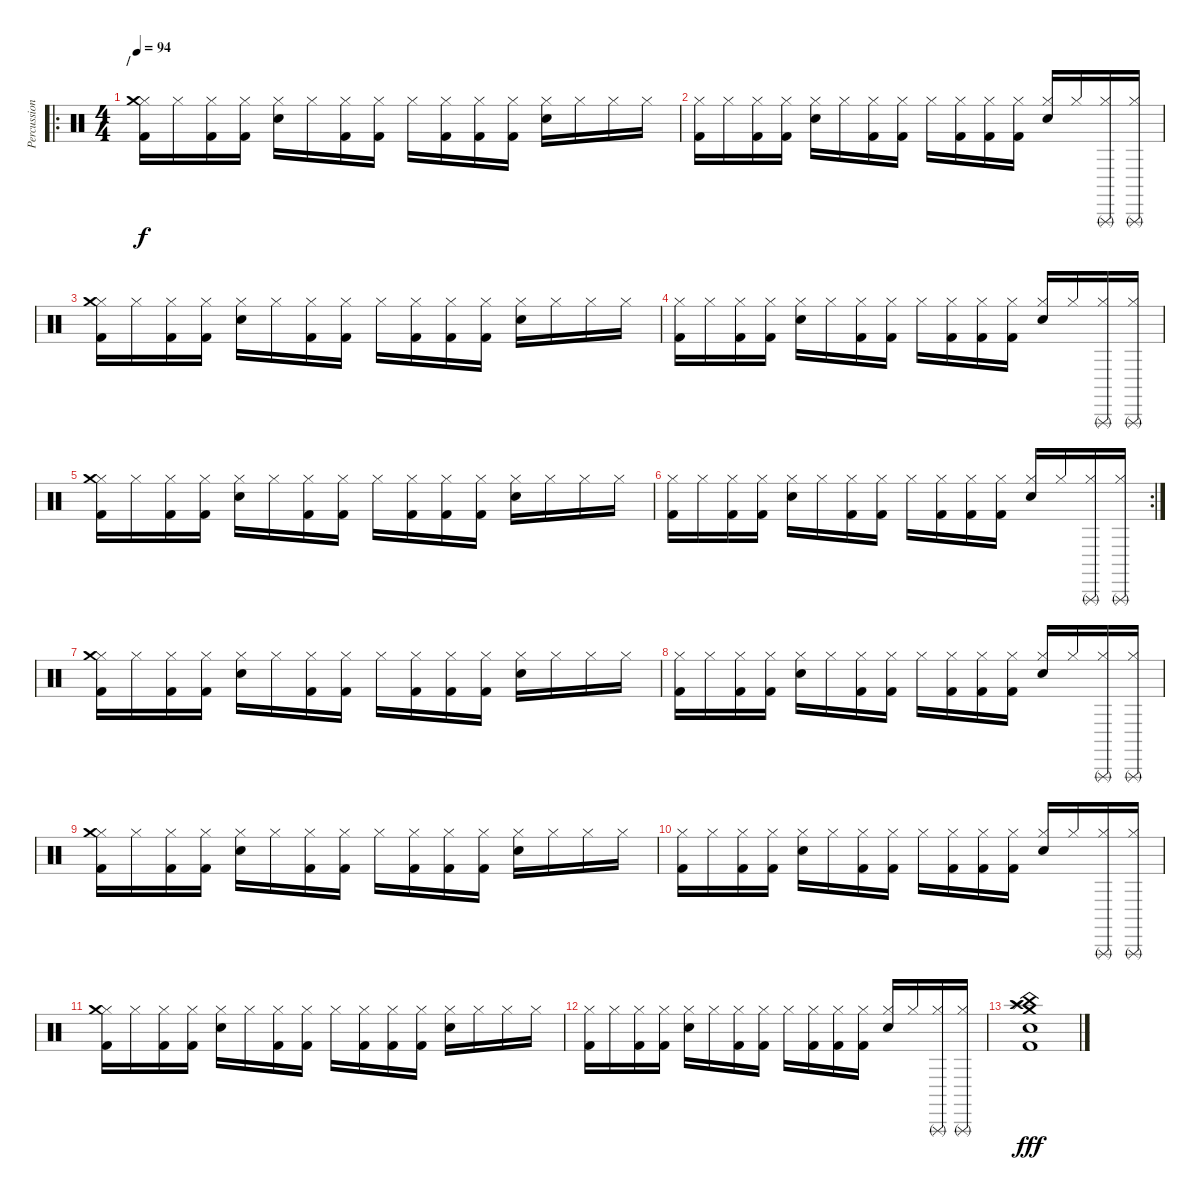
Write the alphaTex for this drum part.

\track ("Percussions" "Percussion") {instrument percussion}
\staff {score}
\articulation defaults
\ro
\ts (4 4)
\section ("" "/")
\tempo 94
\clef neutral
\ks c
("Hi-Hat (closed)" "Crash medium (hit)" "Kick (hit) 2").16{dy f} "Hi-Hat (closed)".16 ("Hi-Hat (closed)" "Kick (hit) 2").16 ("Hi-Hat (closed)" "Kick (hit) 2").16 ("Hi-Hat (closed)" "Electric Snare (hit)").16 "Hi-Hat (closed)".16 ("Hi-Hat (closed)" "Kick (hit) 2").16 ("Hi-Hat (closed)" "Kick (hit) 2").16 "Hi-Hat (closed)".16 ("Hi-Hat (closed)" "Kick (hit) 2").16 ("Hi-Hat (closed)" "Kick (hit) 2").16 ("Hi-Hat (closed)" "Kick (hit) 2").16 ("Hi-Hat (closed)" "Electric Snare (hit)").16 "Hi-Hat (closed)".16 "Hi-Hat (closed)".16 "Hi-Hat (closed)".16 |
("Hi-Hat (closed)" "Kick (hit) 2").16 "Hi-Hat (closed)".16 ("Hi-Hat (closed)" "Kick (hit) 2").16 ("Hi-Hat (closed)" "Kick (hit) 2").16 ("Hi-Hat (closed)" "Electric Snare (hit)").16 "Hi-Hat (closed)".16 ("Hi-Hat (closed)" "Kick (hit) 2").16 ("Hi-Hat (closed)" "Kick (hit) 2").16 "Hi-Hat (closed)".16 ("Hi-Hat (closed)" "Kick (hit) 2").16 ("Hi-Hat (closed)" "Kick (hit) 2").16 ("Hi-Hat (closed)" "Kick (hit) 2").16 ("Hi-Hat (closed)" "Electric Snare (hit)").16 "Hi-Hat (closed)".16 ("Hi-Hat (closed)" "Triangle (rnute)").16 ("Hi-Hat (closed)" "Triangle (rnute)").16 |
("Hi-Hat (closed)" "Crash medium (hit)" "Kick (hit) 2").16 "Hi-Hat (closed)".16 ("Hi-Hat (closed)" "Kick (hit) 2").16 ("Hi-Hat (closed)" "Kick (hit) 2").16 ("Hi-Hat (closed)" "Electric Snare (hit)").16 "Hi-Hat (closed)".16 ("Hi-Hat (closed)" "Kick (hit) 2").16 ("Hi-Hat (closed)" "Kick (hit) 2").16 "Hi-Hat (closed)".16 ("Hi-Hat (closed)" "Kick (hit) 2").16 ("Hi-Hat (closed)" "Kick (hit) 2").16 ("Hi-Hat (closed)" "Kick (hit) 2").16 ("Hi-Hat (closed)" "Electric Snare (hit)").16 "Hi-Hat (closed)".16 "Hi-Hat (closed)".16 "Hi-Hat (closed)".16 |
("Hi-Hat (closed)" "Kick (hit) 2").16 "Hi-Hat (closed)".16 ("Hi-Hat (closed)" "Kick (hit) 2").16 ("Hi-Hat (closed)" "Kick (hit) 2").16 ("Hi-Hat (closed)" "Electric Snare (hit)").16 "Hi-Hat (closed)".16 ("Hi-Hat (closed)" "Kick (hit) 2").16 ("Hi-Hat (closed)" "Kick (hit) 2").16 "Hi-Hat (closed)".16 ("Hi-Hat (closed)" "Kick (hit) 2").16 ("Hi-Hat (closed)" "Kick (hit) 2").16 ("Hi-Hat (closed)" "Kick (hit) 2").16 ("Hi-Hat (closed)" "Electric Snare (hit)").16 "Hi-Hat (closed)".16 ("Hi-Hat (closed)" "Triangle (rnute)").16 ("Hi-Hat (closed)" "Triangle (rnute)").16 |
("Hi-Hat (closed)" "Crash medium (hit)" "Kick (hit) 2").16 "Hi-Hat (closed)".16 ("Hi-Hat (closed)" "Kick (hit) 2").16 ("Hi-Hat (closed)" "Kick (hit) 2").16 ("Hi-Hat (closed)" "Electric Snare (hit)").16 "Hi-Hat (closed)".16 ("Hi-Hat (closed)" "Kick (hit) 2").16 ("Hi-Hat (closed)" "Kick (hit) 2").16 "Hi-Hat (closed)".16 ("Hi-Hat (closed)" "Kick (hit) 2").16 ("Hi-Hat (closed)" "Kick (hit) 2").16 ("Hi-Hat (closed)" "Kick (hit) 2").16 ("Hi-Hat (closed)" "Electric Snare (hit)").16 "Hi-Hat (closed)".16 "Hi-Hat (closed)".16 "Hi-Hat (closed)".16 |
\rc 2
("Hi-Hat (closed)" "Kick (hit) 2").16 "Hi-Hat (closed)".16 ("Hi-Hat (closed)" "Kick (hit) 2").16 ("Hi-Hat (closed)" "Kick (hit) 2").16 ("Hi-Hat (closed)" "Electric Snare (hit)").16 "Hi-Hat (closed)".16 ("Hi-Hat (closed)" "Kick (hit) 2").16 ("Hi-Hat (closed)" "Kick (hit) 2").16 "Hi-Hat (closed)".16 ("Hi-Hat (closed)" "Kick (hit) 2").16 ("Hi-Hat (closed)" "Kick (hit) 2").16 ("Hi-Hat (closed)" "Kick (hit) 2").16 ("Hi-Hat (closed)" "Electric Snare (hit)").16 "Hi-Hat (closed)".16 ("Hi-Hat (closed)" "Triangle (rnute)").16 ("Hi-Hat (closed)" "Triangle (rnute)").16 |
("Hi-Hat (closed)" "Crash medium (hit)" "Kick (hit) 2").16 "Hi-Hat (closed)".16 ("Hi-Hat (closed)" "Kick (hit) 2").16 ("Hi-Hat (closed)" "Kick (hit) 2").16 ("Hi-Hat (closed)" "Electric Snare (hit)").16 "Hi-Hat (closed)".16 ("Hi-Hat (closed)" "Kick (hit) 2").16 ("Hi-Hat (closed)" "Kick (hit) 2").16 "Hi-Hat (closed)".16 ("Hi-Hat (closed)" "Kick (hit) 2").16 ("Hi-Hat (closed)" "Kick (hit) 2").16 ("Hi-Hat (closed)" "Kick (hit) 2").16 ("Hi-Hat (closed)" "Electric Snare (hit)").16 "Hi-Hat (closed)".16 "Hi-Hat (closed)".16 "Hi-Hat (closed)".16 |
("Hi-Hat (closed)" "Kick (hit) 2").16 "Hi-Hat (closed)".16 ("Hi-Hat (closed)" "Kick (hit) 2").16 ("Hi-Hat (closed)" "Kick (hit) 2").16 ("Hi-Hat (closed)" "Electric Snare (hit)").16 "Hi-Hat (closed)".16 ("Hi-Hat (closed)" "Kick (hit) 2").16 ("Hi-Hat (closed)" "Kick (hit) 2").16 "Hi-Hat (closed)".16 ("Hi-Hat (closed)" "Kick (hit) 2").16 ("Hi-Hat (closed)" "Kick (hit) 2").16 ("Hi-Hat (closed)" "Kick (hit) 2").16 ("Hi-Hat (closed)" "Electric Snare (hit)").16 "Hi-Hat (closed)".16 ("Hi-Hat (closed)" "Triangle (rnute)").16 ("Hi-Hat (closed)" "Triangle (rnute)").16 |
("Hi-Hat (closed)" "Crash medium (hit)" "Kick (hit) 2").16 "Hi-Hat (closed)".16 ("Hi-Hat (closed)" "Kick (hit) 2").16 ("Hi-Hat (closed)" "Kick (hit) 2").16 ("Hi-Hat (closed)" "Electric Snare (hit)").16 "Hi-Hat (closed)".16 ("Hi-Hat (closed)" "Kick (hit) 2").16 ("Hi-Hat (closed)" "Kick (hit) 2").16 "Hi-Hat (closed)".16 ("Hi-Hat (closed)" "Kick (hit) 2").16 ("Hi-Hat (closed)" "Kick (hit) 2").16 ("Hi-Hat (closed)" "Kick (hit) 2").16 ("Hi-Hat (closed)" "Electric Snare (hit)").16 "Hi-Hat (closed)".16 "Hi-Hat (closed)".16 "Hi-Hat (closed)".16 |
("Hi-Hat (closed)" "Kick (hit) 2").16 "Hi-Hat (closed)".16 ("Hi-Hat (closed)" "Kick (hit) 2").16 ("Hi-Hat (closed)" "Kick (hit) 2").16 ("Hi-Hat (closed)" "Electric Snare (hit)").16 "Hi-Hat (closed)".16 ("Hi-Hat (closed)" "Kick (hit) 2").16 ("Hi-Hat (closed)" "Kick (hit) 2").16 "Hi-Hat (closed)".16 ("Hi-Hat (closed)" "Kick (hit) 2").16 ("Hi-Hat (closed)" "Kick (hit) 2").16 ("Hi-Hat (closed)" "Kick (hit) 2").16 ("Hi-Hat (closed)" "Electric Snare (hit)").16 "Hi-Hat (closed)".16 ("Hi-Hat (closed)" "Triangle (rnute)").16 ("Hi-Hat (closed)" "Triangle (rnute)").16 |
("Hi-Hat (closed)" "Crash medium (hit)" "Kick (hit) 2").16 "Hi-Hat (closed)".16 ("Hi-Hat (closed)" "Kick (hit) 2").16 ("Hi-Hat (closed)" "Kick (hit) 2").16 ("Hi-Hat (closed)" "Electric Snare (hit)").16 "Hi-Hat (closed)".16 ("Hi-Hat (closed)" "Kick (hit) 2").16 ("Hi-Hat (closed)" "Kick (hit) 2").16 "Hi-Hat (closed)".16 ("Hi-Hat (closed)" "Kick (hit) 2").16 ("Hi-Hat (closed)" "Kick (hit) 2").16 ("Hi-Hat (closed)" "Kick (hit) 2").16 ("Hi-Hat (closed)" "Electric Snare (hit)").16 "Hi-Hat (closed)".16 "Hi-Hat (closed)".16 "Hi-Hat (closed)".16 |
("Hi-Hat (closed)" "Kick (hit) 2").16 "Hi-Hat (closed)".16 ("Hi-Hat (closed)" "Kick (hit) 2").16 ("Hi-Hat (closed)" "Kick (hit) 2").16 ("Hi-Hat (closed)" "Electric Snare (hit)").16 "Hi-Hat (closed)".16 ("Hi-Hat (closed)" "Kick (hit) 2").16 ("Hi-Hat (closed)" "Kick (hit) 2").16 "Hi-Hat (closed)".16 ("Hi-Hat (closed)" "Kick (hit) 2").16 ("Hi-Hat (closed)" "Kick (hit) 2").16 ("Hi-Hat (closed)" "Kick (hit) 2").16 ("Hi-Hat (closed)" "Electric Snare (hit)").16 "Hi-Hat (closed)".16 ("Hi-Hat (closed)" "Triangle (rnute)").16 ("Hi-Hat (closed)" "Triangle (rnute)").16 |
("Crash medium (hit)" "Crash high (hit)" "Splash (hit)" "China (hit)" "Electric Snare (hit)" "Kick (hit) 2").1{dy fff}
